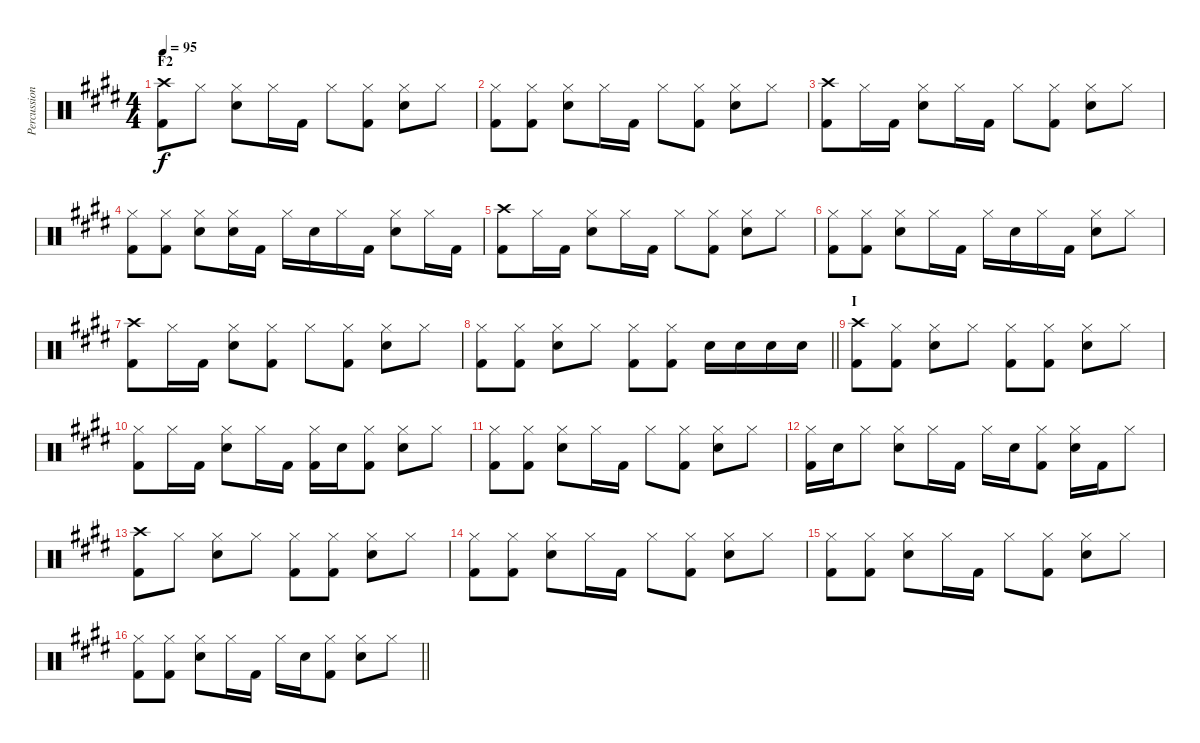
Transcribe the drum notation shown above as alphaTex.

\track ("Percussion" "Percussion") {instrument percussion}
\staff {score}
\articulation defaults
\ts (4 4)
\section ("" "F2")
\tempo 95
\clef neutral
\ks e
("Crash high (hit)" "Kick (hit) 2").8{dy f} "Hi-Hat (closed)".8 ("Hi-Hat (closed)" "Snare (hit) 2").8 "Hi-Hat (closed)".16 "Kick (hit) 2".16 "Hi-Hat (closed)".8 ("Hi-Hat (closed)" "Kick (hit) 2").8 ("Hi-Hat (closed)" "Snare (hit) 2").8 "Hi-Hat (closed)".8 |
("Hi-Hat (closed)" "Kick (hit) 2").8 ("Hi-Hat (closed)" "Kick (hit) 2").8 ("Hi-Hat (closed)" "Snare (hit) 2").8 "Hi-Hat (closed)".16 "Kick (hit) 2".16 "Hi-Hat (closed)".8 ("Hi-Hat (closed)" "Kick (hit) 2").8 ("Hi-Hat (closed)" "Snare (hit) 2").8 "Hi-Hat (closed)".8 |
("Crash high (hit)" "Kick (hit) 2").8 "Hi-Hat (closed)".16 "Kick (hit) 2".16 ("Hi-Hat (closed)" "Snare (hit) 2").8 "Hi-Hat (closed)".16 "Kick (hit) 2".16 "Hi-Hat (closed)".8 ("Hi-Hat (closed)" "Kick (hit) 2").8 ("Hi-Hat (closed)" "Snare (hit) 2").8 "Hi-Hat (closed)".8 |
("Hi-Hat (closed)" "Kick (hit) 2").8 ("Hi-Hat (closed)" "Kick (hit) 2").8 ("Hi-Hat (closed)" "Snare (hit) 2").8 ("Hi-Hat (closed)" "Snare (hit) 2").16 "Kick (hit) 2".16 "Hi-Hat (closed)".16 "Snare (hit) 2".16 "Hi-Hat (closed)".16 "Kick (hit) 2".16 ("Hi-Hat (closed)" "Snare (hit) 2").8 "Hi-Hat (closed)".16 "Kick (hit) 2".16 |
("Crash high (hit)" "Kick (hit) 2").8 "Hi-Hat (closed)".16 "Kick (hit) 2".16 ("Hi-Hat (closed)" "Snare (hit) 2").8 "Hi-Hat (closed)".16 "Kick (hit) 2".16 "Hi-Hat (closed)".8 ("Hi-Hat (closed)" "Kick (hit) 2").8 ("Hi-Hat (closed)" "Snare (hit) 2").8 "Hi-Hat (closed)".8 |
("Hi-Hat (closed)" "Kick (hit) 2").8 ("Hi-Hat (closed)" "Kick (hit) 2").8 ("Hi-Hat (closed)" "Snare (hit) 2").8 "Hi-Hat (closed)".16 "Kick (hit) 2".16 "Hi-Hat (closed)".16 "Snare (hit) 2".16 "Hi-Hat (closed)".16 "Kick (hit) 2".16 ("Hi-Hat (closed)" "Snare (hit) 2").8 "Hi-Hat (closed)".8 |
("Crash high (hit)" "Kick (hit) 2").8 "Hi-Hat (closed)".16 "Kick (hit) 2".16 ("Hi-Hat (closed)" "Snare (hit) 2").8 ("Hi-Hat (closed)" "Kick (hit) 2").8 "Hi-Hat (closed)".8 ("Hi-Hat (closed)" "Kick (hit) 2").8 ("Hi-Hat (closed)" "Snare (hit) 2").8 "Hi-Hat (closed)".8 |
\barLineRight lightlight
("Hi-Hat (closed)" "Kick (hit) 2").8 ("Hi-Hat (closed)" "Kick (hit) 2").8 ("Hi-Hat (closed)" "Snare (hit) 2").8 "Hi-Hat (closed)".8 ("Hi-Hat (closed)" "Kick (hit) 2").8 ("Hi-Hat (closed)" "Kick (hit) 2").8 "Snare (hit) 2".16 "Snare (hit) 2".16 "Snare (hit) 2".16 "Snare (hit) 2".16 |
\section ("" "I")
("Crash high (hit)" "Kick (hit) 2").8 ("Hi-Hat (closed)" "Kick (hit) 2").8 ("Hi-Hat (closed)" "Snare (hit) 2").8 "Hi-Hat (closed)".8 ("Hi-Hat (closed)" "Kick (hit) 2").8 ("Hi-Hat (closed)" "Kick (hit) 2").8 ("Hi-Hat (closed)" "Snare (hit) 2").8 "Hi-Hat (closed)".8 |
("Hi-Hat (closed)" "Kick (hit) 2").8 "Hi-Hat (closed)".16 "Kick (hit) 2".16 ("Hi-Hat (closed)" "Snare (hit) 2").8 "Hi-Hat (closed)".16 "Kick (hit) 2".16 ("Hi-Hat (closed)" "Kick (hit) 2").16 "Snare (hit) 2".16 ("Hi-Hat (closed)" "Kick (hit) 2").8 ("Hi-Hat (closed)" "Snare (hit) 2").8 "Hi-Hat (closed)".8 |
("Hi-Hat (closed)" "Kick (hit) 2").8 ("Hi-Hat (closed)" "Kick (hit) 2").8 ("Hi-Hat (closed)" "Snare (hit) 2").8 "Hi-Hat (closed)".16 "Kick (hit) 2".16 "Hi-Hat (closed)".8 ("Hi-Hat (closed)" "Kick (hit) 2").8 ("Hi-Hat (closed)" "Snare (hit) 2").8 "Hi-Hat (closed)".8 |
("Hi-Hat (closed)" "Kick (hit) 2").16 "Snare (hit) 2".16 "Hi-Hat (closed)".8 ("Hi-Hat (closed)" "Snare (hit) 2").8 "Hi-Hat (closed)".16 "Kick (hit) 2".16 "Hi-Hat (closed)".16 "Snare (hit) 2".16 ("Hi-Hat (closed)" "Kick (hit) 2").8 ("Hi-Hat (closed)" "Snare (hit) 2").16 "Kick (hit) 2".16 "Hi-Hat (closed)".8 |
("Crash high (hit)" "Kick (hit) 2").8 "Hi-Hat (closed)".8 ("Hi-Hat (closed)" "Snare (hit) 2").8 "Hi-Hat (closed)".8 ("Hi-Hat (closed)" "Kick (hit) 2").8 ("Hi-Hat (closed)" "Kick (hit) 2").8 ("Hi-Hat (closed)" "Snare (hit) 2").8 "Hi-Hat (closed)".8 |
("Hi-Hat (closed)" "Kick (hit) 2").8 ("Hi-Hat (closed)" "Kick (hit) 2").8 ("Hi-Hat (closed)" "Snare (hit) 2").8 "Hi-Hat (closed)".16 "Kick (hit) 2".16 "Hi-Hat (closed)".8 ("Hi-Hat (closed)" "Kick (hit) 2").8 ("Hi-Hat (closed)" "Snare (hit) 2").8 "Hi-Hat (closed)".8 |
("Hi-Hat (closed)" "Kick (hit) 2").8 ("Hi-Hat (closed)" "Kick (hit) 2").8 ("Hi-Hat (closed)" "Snare (hit) 2").8 "Hi-Hat (closed)".16 "Kick (hit) 2".16 "Hi-Hat (closed)".8 ("Hi-Hat (closed)" "Kick (hit) 2").8 ("Hi-Hat (closed)" "Snare (hit) 2").8 "Hi-Hat (closed)".8 |
\barLineRight lightlight
("Hi-Hat (closed)" "Kick (hit) 2").8 ("Hi-Hat (closed)" "Kick (hit) 2").8 ("Hi-Hat (closed)" "Snare (hit) 2").8 "Hi-Hat (closed)".16 "Kick (hit) 2".16 "Hi-Hat (closed)".16 "Snare (hit) 2".16 ("Hi-Hat (closed)" "Kick (hit) 2").8 ("Hi-Hat (closed)" "Snare (hit) 2").8 "Hi-Hat (closed)".8
